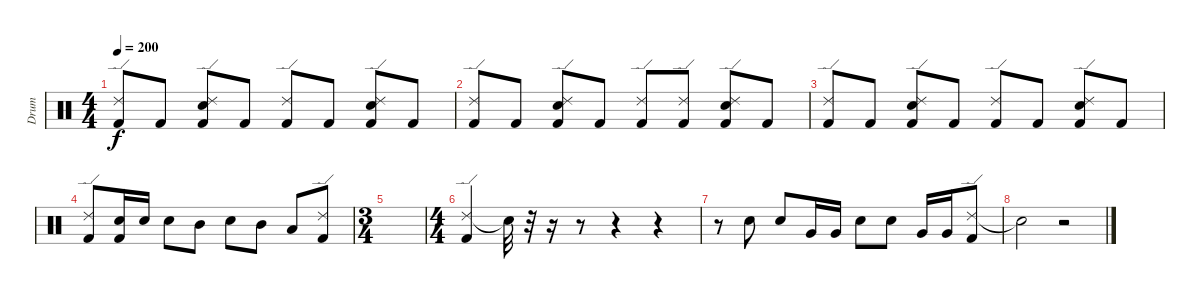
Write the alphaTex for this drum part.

\track ("Drum" "Drum") {instrument percussion}
\staff {score}
\articulation defaults
\ts (4 4)
\tempo 200
\clef neutral
\ks c
("Ride (edge) 2" "Kick (hit) 2").8{dy f} "Kick (hit) 2".8 ("Ride (edge) 2" "Electric Snare (hit)" "Kick (hit) 2").8 "Kick (hit) 2".8 ("Ride (edge) 2" "Kick (hit) 2").8 "Kick (hit) 2".8 ("Ride (edge) 2" "Electric Snare (hit)" "Kick (hit) 2").8 "Kick (hit) 2".8 |
("Ride (edge) 2" "Kick (hit) 2").8 "Kick (hit) 2".8 ("Ride (edge) 2" "Electric Snare (hit)" "Kick (hit) 2").8 "Kick (hit) 2".8 ("Ride (edge) 2" "Kick (hit) 2").8 ("Ride (edge) 2" "Kick (hit) 2").8 ("Ride (edge) 2" "Electric Snare (hit)" "Kick (hit) 2").8 "Kick (hit) 2".8 |
("Ride (edge) 2" "Kick (hit) 2").8 "Kick (hit) 2".8 ("Ride (edge) 2" "Electric Snare (hit)" "Kick (hit) 2").8 "Kick (hit) 2".8 ("Ride (edge) 2" "Kick (hit) 2").8 "Kick (hit) 2".8 ("Ride (edge) 2" "Electric Snare (hit)" "Kick (hit) 2").8 "Kick (hit) 2".8 |
("Ride (edge) 2" "Kick (hit) 2").8 ("Electric Snare (hit)" "Kick (hit) 2").16 "Electric Snare (hit)".16 "Electric Snare (hit)".8 "Mid Tom (hit)".8 "Electric Snare (hit)".8 "Mid Tom (hit)".8 "Low Tom (hit)".8 ("Ride (edge) 2" "Kick (hit) 2").8 |
\ts (3 4)
|
\ts (4 4)
("Ride (edge) 2" "Kick (hit) 2").4 "Snare (hit)"{t}.32 r.32 r.16 r.8 r.4 r.4 |
r.8 "Electric Snare (hit)".8 "Electric Snare (hit)".8 "Very Low Tom (hit)".16 "Very Low Tom (hit)".16 "Electric Snare (hit)".8 "Electric Snare (hit)".8 "Very Low Tom (hit)".16 "Very Low Tom (hit)".16 ("Ride (edge) 2" "Kick (hit) 2").8 |
"Snare (hit)"{t}.2 r.2
